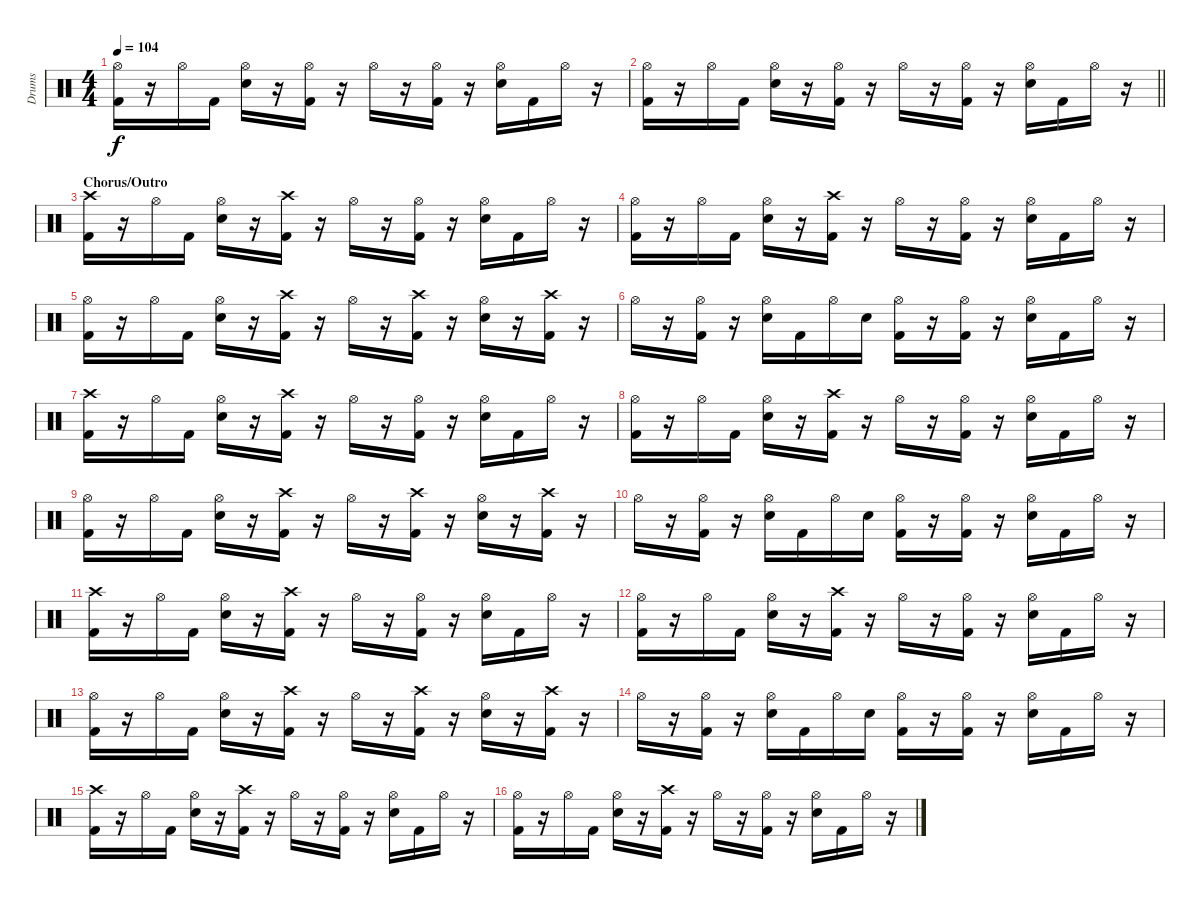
\track ("Drums" "Drums") {instrument percussion}
\staff {score}
\articulation defaults
\ts (4 4)
\tempo 104
\clef neutral
\ks c
("Hi-Hat (open)" "Kick (hit) 2").16{dy f} r.16 "Hi-Hat (open)".16 "Kick (hit) 2".16 ("Hi-Hat (open)" "Snare (hit) 2").16 r.16 ("Hi-Hat (open)" "Kick (hit) 2").16 r.16 "Hi-Hat (open)".16 r.16 ("Hi-Hat (open)" "Kick (hit) 2").16 r.16 ("Hi-Hat (open)" "Snare (hit) 2").16 "Kick (hit) 2".16 "Hi-Hat (open)".16 r.16 |
\barLineRight lightlight
("Hi-Hat (open)" "Kick (hit) 2").16 r.16 "Hi-Hat (open)".16 "Kick (hit) 2".16 ("Hi-Hat (open)" "Snare (hit) 2").16 r.16 ("Hi-Hat (open)" "Kick (hit) 2").16 r.16 "Hi-Hat (open)".16 r.16 ("Hi-Hat (open)" "Kick (hit) 2").16 r.16 ("Hi-Hat (open)" "Snare (hit) 2").16 "Kick (hit) 2".16 "Hi-Hat (open)".16 r.16 |
\section ("" "Chorus/Outro")
("Crash high (hit)" "Kick (hit) 2").16 r.16 "Hi-Hat (open)".16 "Kick (hit) 2".16 ("Hi-Hat (open)" "Snare (hit) 2").16 r.16 ("Crash high (hit)" "Kick (hit) 2").16 r.16 "Hi-Hat (open)".16 r.16 ("Hi-Hat (open)" "Kick (hit) 2").16 r.16 ("Hi-Hat (open)" "Snare (hit) 2").16 "Kick (hit) 2".16 "Hi-Hat (open)".16 r.16 |
("Hi-Hat (open)" "Kick (hit) 2").16 r.16 "Hi-Hat (open)".16 "Kick (hit) 2".16 ("Hi-Hat (open)" "Snare (hit) 2").16 r.16 ("Crash high (hit)" "Kick (hit) 2").16 r.16 "Hi-Hat (open)".16 r.16 ("Hi-Hat (open)" "Kick (hit) 2").16 r.16 ("Hi-Hat (open)" "Snare (hit) 2").16 "Kick (hit) 2".16 "Hi-Hat (open)".16 r.16 |
("Hi-Hat (open)" "Kick (hit) 2").16 r.16 "Hi-Hat (open)".16 "Kick (hit) 2".16 ("Hi-Hat (open)" "Snare (hit) 2").16 r.16 ("Crash high (hit)" "Kick (hit) 2").16 r.16 "Hi-Hat (open)".16 r.16 ("Crash high (hit)" "Kick (hit) 2").16 r.16 ("Hi-Hat (open)" "Snare (hit) 2").16 r.16 ("Crash high (hit)" "Kick (hit) 2").16 r.16 |
"Hi-Hat (open)".16 r.16 ("Hi-Hat (open)" "Kick (hit) 2").16 r.16 ("Hi-Hat (open)" "Snare (hit) 2").16 "Kick (hit) 2".16 "Hi-Hat (open)".16 "Snare (hit) 2".16 ("Hi-Hat (open)" "Kick (hit) 2").16 r.16 ("Hi-Hat (open)" "Kick (hit) 2").16 r.16 ("Hi-Hat (open)" "Snare (hit) 2").16 "Kick (hit) 2".16 "Hi-Hat (open)".16 r.16 |
("Crash high (hit)" "Kick (hit) 2").16 r.16 "Hi-Hat (open)".16 "Kick (hit) 2".16 ("Hi-Hat (open)" "Snare (hit) 2").16 r.16 ("Crash high (hit)" "Kick (hit) 2").16 r.16 "Hi-Hat (open)".16 r.16 ("Hi-Hat (open)" "Kick (hit) 2").16 r.16 ("Hi-Hat (open)" "Snare (hit) 2").16 "Kick (hit) 2".16 "Hi-Hat (open)".16 r.16 |
("Hi-Hat (open)" "Kick (hit) 2").16 r.16 "Hi-Hat (open)".16 "Kick (hit) 2".16 ("Hi-Hat (open)" "Snare (hit) 2").16 r.16 ("Crash high (hit)" "Kick (hit) 2").16 r.16 "Hi-Hat (open)".16 r.16 ("Hi-Hat (open)" "Kick (hit) 2").16 r.16 ("Hi-Hat (open)" "Snare (hit) 2").16 "Kick (hit) 2".16 "Hi-Hat (open)".16 r.16 |
("Hi-Hat (open)" "Kick (hit) 2").16 r.16 "Hi-Hat (open)".16 "Kick (hit) 2".16 ("Hi-Hat (open)" "Snare (hit) 2").16 r.16 ("Crash high (hit)" "Kick (hit) 2").16 r.16 "Hi-Hat (open)".16 r.16 ("Crash high (hit)" "Kick (hit) 2").16 r.16 ("Hi-Hat (open)" "Snare (hit) 2").16 r.16 ("Crash high (hit)" "Kick (hit) 2").16 r.16 |
"Hi-Hat (open)".16 r.16 ("Hi-Hat (open)" "Kick (hit) 2").16 r.16 ("Hi-Hat (open)" "Snare (hit) 2").16 "Kick (hit) 2".16 "Hi-Hat (open)".16 "Snare (hit) 2".16 ("Hi-Hat (open)" "Kick (hit) 2").16 r.16 ("Hi-Hat (open)" "Kick (hit) 2").16 r.16 ("Hi-Hat (open)" "Snare (hit) 2").16 "Kick (hit) 2".16 "Hi-Hat (open)".16 r.16 |
("Crash high (hit)" "Kick (hit) 2").16 r.16 "Hi-Hat (open)".16 "Kick (hit) 2".16 ("Hi-Hat (open)" "Snare (hit) 2").16 r.16 ("Crash high (hit)" "Kick (hit) 2").16 r.16 "Hi-Hat (open)".16 r.16 ("Hi-Hat (open)" "Kick (hit) 2").16 r.16 ("Hi-Hat (open)" "Snare (hit) 2").16 "Kick (hit) 2".16 "Hi-Hat (open)".16 r.16 |
("Hi-Hat (open)" "Kick (hit) 2").16 r.16 "Hi-Hat (open)".16 "Kick (hit) 2".16 ("Hi-Hat (open)" "Snare (hit) 2").16 r.16 ("Crash high (hit)" "Kick (hit) 2").16 r.16 "Hi-Hat (open)".16 r.16 ("Hi-Hat (open)" "Kick (hit) 2").16 r.16 ("Hi-Hat (open)" "Snare (hit) 2").16 "Kick (hit) 2".16 "Hi-Hat (open)".16 r.16 |
("Hi-Hat (open)" "Kick (hit) 2").16 r.16 "Hi-Hat (open)".16 "Kick (hit) 2".16 ("Hi-Hat (open)" "Snare (hit) 2").16 r.16 ("Crash high (hit)" "Kick (hit) 2").16 r.16 "Hi-Hat (open)".16 r.16 ("Crash high (hit)" "Kick (hit) 2").16 r.16 ("Hi-Hat (open)" "Snare (hit) 2").16 r.16 ("Crash high (hit)" "Kick (hit) 2").16 r.16 |
"Hi-Hat (open)".16 r.16 ("Hi-Hat (open)" "Kick (hit) 2").16 r.16 ("Hi-Hat (open)" "Snare (hit) 2").16 "Kick (hit) 2".16 "Hi-Hat (open)".16 "Snare (hit) 2".16 ("Hi-Hat (open)" "Kick (hit) 2").16 r.16 ("Hi-Hat (open)" "Kick (hit) 2").16 r.16 ("Hi-Hat (open)" "Snare (hit) 2").16 "Kick (hit) 2".16 "Hi-Hat (open)".16 r.16 |
("Crash high (hit)" "Kick (hit) 2").16 r.16 "Hi-Hat (open)".16 "Kick (hit) 2".16 ("Hi-Hat (open)" "Snare (hit) 2").16 r.16 ("Crash high (hit)" "Kick (hit) 2").16 r.16 "Hi-Hat (open)".16 r.16 ("Hi-Hat (open)" "Kick (hit) 2").16 r.16 ("Hi-Hat (open)" "Snare (hit) 2").16 "Kick (hit) 2".16 "Hi-Hat (open)".16 r.16 |
("Hi-Hat (open)" "Kick (hit) 2").16 r.16 "Hi-Hat (open)".16 "Kick (hit) 2".16 ("Hi-Hat (open)" "Snare (hit) 2").16 r.16 ("Crash high (hit)" "Kick (hit) 2").16 r.16 "Hi-Hat (open)".16 r.16 ("Hi-Hat (open)" "Kick (hit) 2").16 r.16 ("Hi-Hat (open)" "Snare (hit) 2").16 "Kick (hit) 2".16 "Hi-Hat (open)".16 r.16
